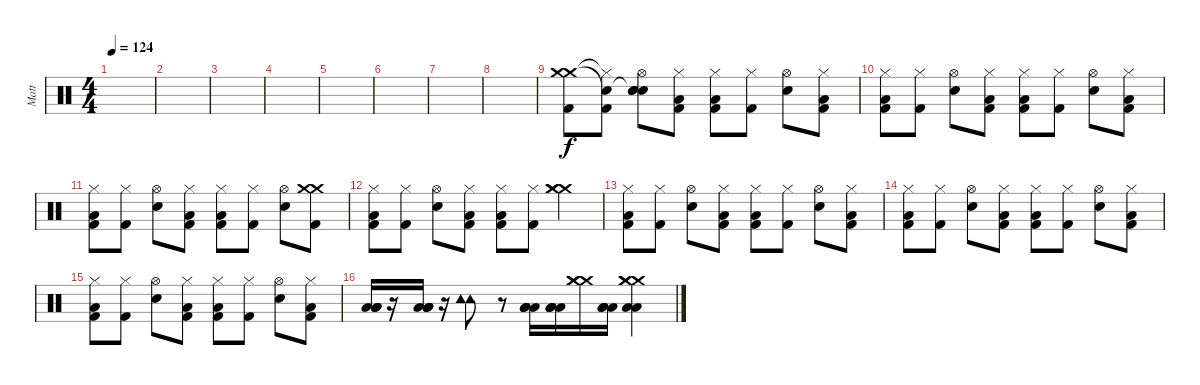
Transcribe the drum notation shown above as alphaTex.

\track ("Matt" "Matt") {instrument percussion}
\staff {score}
\articulation defaults
\ts (4 4)
\tempo 124
\clef neutral
\ks c
|
|
|
|
|
|
|
|
("Crash medium (hit)" "Kick (hit) 2" "Crash medium (hit)").8 ("Snare (hit)"{t} "Kick (hit) 2" "Hi-Hat (closed)"{t}).8 ("Snare (hit)"{t} "Hi-Hat (open)" "Snare (hit) 2" "Snare (hit)").8 ("Hi-Hat (closed)" "Kick (hit) 2" "Low Floor Tom (hit)").8 ("Hi-Hat (closed)" "Kick (hit) 2" "Low Floor Tom (hit)").8 ("Kick (hit) 2" "Hi-Hat (closed)").8 ("Hi-Hat (open)" "Snare (hit) 2").8 ("Hi-Hat (closed)" "Kick (hit) 2" "Low Floor Tom (hit)").8 |
("Hi-Hat (closed)" "Kick (hit) 2" "Low Floor Tom (hit)").8 ("Kick (hit) 2" "Hi-Hat (closed)").8 ("Hi-Hat (open)" "Snare (hit) 2").8 ("Hi-Hat (closed)" "Kick (hit) 2" "Low Floor Tom (hit)").8 ("Hi-Hat (closed)" "Kick (hit) 2" "Low Floor Tom (hit)").8 ("Kick (hit) 2" "Hi-Hat (closed)").8 ("Hi-Hat (open)" "Snare (hit) 2").8 ("Hi-Hat (closed)" "Kick (hit) 2" "Low Floor Tom (hit)").8 |
("Hi-Hat (closed)" "Kick (hit) 2" "Low Floor Tom (hit)").8 ("Kick (hit) 2" "Hi-Hat (closed)").8 ("Hi-Hat (open)" "Snare (hit) 2").8 ("Hi-Hat (closed)" "Kick (hit) 2" "Low Floor Tom (hit)").8 ("Hi-Hat (closed)" "Kick (hit) 2" "Low Floor Tom (hit)").8 ("Kick (hit) 2" "Hi-Hat (closed)").8 ("Hi-Hat (open)" "Snare (hit) 2").8 ("Crash medium (hit)" "Kick (hit) 2" "Crash medium (hit)").8 |
("Hi-Hat (closed)" "Kick (hit) 2" "Low Floor Tom (hit)").8 ("Kick (hit) 2" "Hi-Hat (closed)").8 ("Hi-Hat (open)" "Snare (hit) 2").8 ("Hi-Hat (closed)" "Kick (hit) 2" "Low Floor Tom (hit)").8 ("Hi-Hat (closed)" "Kick (hit) 2" "Low Floor Tom (hit)").8 ("Kick (hit) 2" "Hi-Hat (closed)").8 ("Crash medium (hit)" "Crash medium (hit)" "Crash medium (hit)").4 |
("Hi-Hat (closed)" "Kick (hit) 2" "Low Floor Tom (hit)").8 ("Kick (hit) 2" "Hi-Hat (closed)").8 ("Hi-Hat (open)" "Snare (hit) 2").8 ("Hi-Hat (closed)" "Kick (hit) 2" "Low Floor Tom (hit)").8 ("Hi-Hat (closed)" "Kick (hit) 2" "Low Floor Tom (hit)").8 ("Kick (hit) 2" "Hi-Hat (closed)").8 ("Hi-Hat (open)" "Snare (hit) 2").8 ("Hi-Hat (closed)" "Kick (hit) 2" "Low Floor Tom (hit)").8 |
("Hi-Hat (closed)" "Kick (hit) 2" "Low Floor Tom (hit)").8 ("Kick (hit) 2" "Hi-Hat (closed)").8 ("Hi-Hat (open)" "Snare (hit) 2").8 ("Hi-Hat (closed)" "Kick (hit) 2" "Low Floor Tom (hit)").8 ("Hi-Hat (closed)" "Kick (hit) 2" "Low Floor Tom (hit)").8 ("Kick (hit) 2" "Hi-Hat (closed)").8 ("Hi-Hat (open)" "Snare (hit) 2").8 ("Hi-Hat (closed)" "Kick (hit) 2" "Low Floor Tom (hit)").8 |
("Hi-Hat (closed)" "Kick (hit) 2" "Low Floor Tom (hit)").8 ("Kick (hit) 2" "Hi-Hat (closed)").8 ("Hi-Hat (open)" "Snare (hit) 2").8 ("Hi-Hat (closed)" "Kick (hit) 2" "Low Floor Tom (hit)").8 ("Hi-Hat (closed)" "Kick (hit) 2" "Low Floor Tom (hit)").8 ("Kick (hit) 2" "Hi-Hat (closed)").8 ("Hi-Hat (open)" "Snare (hit) 2").8 ("Hi-Hat (closed)" "Kick (hit) 2" "Low Floor Tom (hit)").8 |
("Low Tom (hit)" "Low Tom (hit)" "Low Tom (hit)" "Low Tom (hit)").16 r.16 ("Low Tom (hit)" "Low Tom (hit)" "Low Tom (hit)" "Low Tom (hit)").16 r.16 ("Tambourine (hit)" "Tambourine (hit)").8 r.8 ("Low Tom (hit)" "Low Tom (hit)" "Low Tom (hit)" "Low Tom (hit)").16 ("Low Tom (hit)" "Low Tom (hit)" "Low Tom (hit)" "Low Tom (hit)").16 ("Crash medium (hit)" "Crash medium (hit)" "Crash medium (hit)").16 ("Low Tom (hit)" "Low Tom (hit)" "Low Tom (hit)" "Low Tom (hit)").16 ("Crash medium (hit)" "Crash medium (hit)" "Crash medium (hit)" "Low Tom (hit)" "Low Tom (hit)").4
